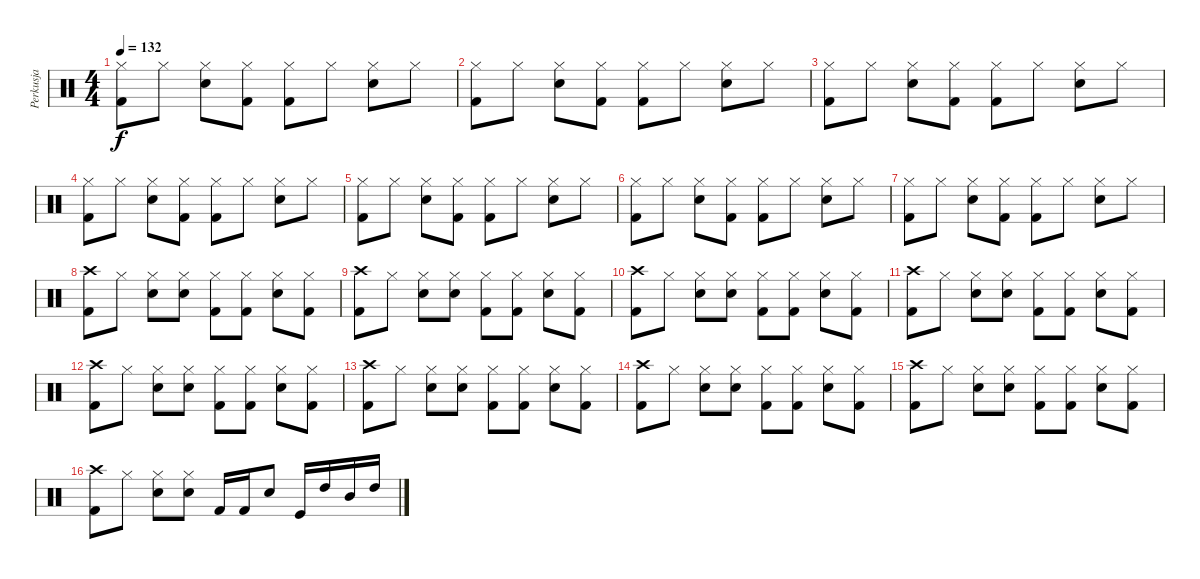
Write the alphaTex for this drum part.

\track ("Perkusja" "Perkusja") {instrument percussion}
\staff {score}
\articulation defaults
\ts (4 4)
\tempo 132
\clef neutral
\ks c
("Kick (hit) 2" "Hi-Hat (closed)").8{dy f} "Hi-Hat (closed)".8 ("Snare (hit) 2" "Hi-Hat (closed)").8 ("Kick (hit) 2" "Hi-Hat (closed)").8 ("Kick (hit) 2" "Hi-Hat (closed)").8 "Hi-Hat (closed)".8 ("Snare (hit) 2" "Hi-Hat (closed)").8 "Hi-Hat (closed)".8 |
("Kick (hit) 2" "Hi-Hat (closed)").8 "Hi-Hat (closed)".8 ("Snare (hit) 2" "Hi-Hat (closed)").8 ("Kick (hit) 2" "Hi-Hat (closed)").8 ("Kick (hit) 2" "Hi-Hat (closed)").8 "Hi-Hat (closed)".8 ("Snare (hit) 2" "Hi-Hat (closed)").8 "Hi-Hat (closed)".8 |
("Kick (hit) 2" "Hi-Hat (closed)").8 "Hi-Hat (closed)".8 ("Snare (hit) 2" "Hi-Hat (closed)").8 ("Kick (hit) 2" "Hi-Hat (closed)").8 ("Kick (hit) 2" "Hi-Hat (closed)").8 "Hi-Hat (closed)".8 ("Snare (hit) 2" "Hi-Hat (closed)").8 "Hi-Hat (closed)".8 |
("Kick (hit) 2" "Hi-Hat (closed)").8 "Hi-Hat (closed)".8 ("Snare (hit) 2" "Hi-Hat (closed)").8 ("Kick (hit) 2" "Hi-Hat (closed)").8 ("Kick (hit) 2" "Hi-Hat (closed)").8 "Hi-Hat (closed)".8 ("Snare (hit) 2" "Hi-Hat (closed)").8 "Hi-Hat (closed)".8 |
("Kick (hit) 2" "Hi-Hat (closed)").8 "Hi-Hat (closed)".8 ("Snare (hit) 2" "Hi-Hat (closed)").8 ("Kick (hit) 2" "Hi-Hat (closed)").8 ("Kick (hit) 2" "Hi-Hat (closed)").8 "Hi-Hat (closed)".8 ("Snare (hit) 2" "Hi-Hat (closed)").8 "Hi-Hat (closed)".8 |
("Kick (hit) 2" "Hi-Hat (closed)").8 "Hi-Hat (closed)".8 ("Snare (hit) 2" "Hi-Hat (closed)").8 ("Kick (hit) 2" "Hi-Hat (closed)").8 ("Kick (hit) 2" "Hi-Hat (closed)").8 "Hi-Hat (closed)".8 ("Snare (hit) 2" "Hi-Hat (closed)").8 "Hi-Hat (closed)".8 |
("Kick (hit) 2" "Hi-Hat (closed)").8 "Hi-Hat (closed)".8 ("Snare (hit) 2" "Hi-Hat (closed)").8 ("Kick (hit) 2" "Hi-Hat (closed)").8 ("Kick (hit) 2" "Hi-Hat (closed)").8 "Hi-Hat (closed)".8 ("Snare (hit) 2" "Hi-Hat (closed)").8 "Hi-Hat (closed)".8 |
("Kick (hit) 2" "Crash high (hit)").8 "Hi-Hat (closed)".8 ("Snare (hit) 2" "Hi-Hat (closed)").8 ("Snare (hit) 2" "Hi-Hat (closed)").8 ("Kick (hit) 2" "Hi-Hat (closed)").8 ("Kick (hit) 2" "Hi-Hat (closed)").8 ("Snare (hit) 2" "Hi-Hat (closed)").8 ("Kick (hit) 2" "Hi-Hat (closed)").8 |
("Kick (hit) 2" "Crash high (hit)").8 "Hi-Hat (closed)".8 ("Snare (hit) 2" "Hi-Hat (closed)").8 ("Snare (hit) 2" "Hi-Hat (closed)").8 ("Kick (hit) 2" "Hi-Hat (closed)").8 ("Kick (hit) 2" "Hi-Hat (closed)").8 ("Snare (hit) 2" "Hi-Hat (closed)").8 ("Kick (hit) 2" "Hi-Hat (closed)").8 |
("Kick (hit) 2" "Crash high (hit)").8 "Hi-Hat (closed)".8 ("Snare (hit) 2" "Hi-Hat (closed)").8 ("Snare (hit) 2" "Hi-Hat (closed)").8 ("Kick (hit) 2" "Hi-Hat (closed)").8 ("Kick (hit) 2" "Hi-Hat (closed)").8 ("Snare (hit) 2" "Hi-Hat (closed)").8 ("Kick (hit) 2" "Hi-Hat (closed)").8 |
("Kick (hit) 2" "Crash high (hit)").8 "Hi-Hat (closed)".8 ("Snare (hit) 2" "Hi-Hat (closed)").8 ("Snare (hit) 2" "Hi-Hat (closed)").8 ("Kick (hit) 2" "Hi-Hat (closed)").8 ("Kick (hit) 2" "Hi-Hat (closed)").8 ("Snare (hit) 2" "Hi-Hat (closed)").8 ("Kick (hit) 2" "Hi-Hat (closed)").8 |
("Kick (hit) 2" "Crash high (hit)").8 "Hi-Hat (closed)".8 ("Snare (hit) 2" "Hi-Hat (closed)").8 ("Snare (hit) 2" "Hi-Hat (closed)").8 ("Kick (hit) 2" "Hi-Hat (closed)").8 ("Kick (hit) 2" "Hi-Hat (closed)").8 ("Snare (hit) 2" "Hi-Hat (closed)").8 ("Kick (hit) 2" "Hi-Hat (closed)").8 |
("Kick (hit) 2" "Crash high (hit)").8 "Hi-Hat (closed)".8 ("Snare (hit) 2" "Hi-Hat (closed)").8 ("Snare (hit) 2" "Hi-Hat (closed)").8 ("Kick (hit) 2" "Hi-Hat (closed)").8 ("Kick (hit) 2" "Hi-Hat (closed)").8 ("Snare (hit) 2" "Hi-Hat (closed)").8 ("Kick (hit) 2" "Hi-Hat (closed)").8 |
("Kick (hit) 2" "Crash high (hit)").8 "Hi-Hat (closed)".8 ("Snare (hit) 2" "Hi-Hat (closed)").8 ("Snare (hit) 2" "Hi-Hat (closed)").8 ("Kick (hit) 2" "Hi-Hat (closed)").8 ("Kick (hit) 2" "Hi-Hat (closed)").8 ("Snare (hit) 2" "Hi-Hat (closed)").8 ("Kick (hit) 2" "Hi-Hat (closed)").8 |
("Kick (hit) 2" "Crash high (hit)").8 "Hi-Hat (closed)".8 ("Snare (hit) 2" "Hi-Hat (closed)").8 ("Snare (hit) 2" "Hi-Hat (closed)").8 ("Kick (hit) 2" "Hi-Hat (closed)").8 ("Kick (hit) 2" "Hi-Hat (closed)").8 ("Snare (hit) 2" "Hi-Hat (closed)").8 ("Kick (hit) 2" "Hi-Hat (closed)").8 |
("Kick (hit) 2" "Crash high (hit)").8 "Hi-Hat (closed)".8 ("Snare (hit) 2" "Hi-Hat (closed)").8 ("Snare (hit) 2" "Hi-Hat (closed)").8 "Kick (hit) 2".16 "Kick (hit) 2".16 "Snare (hit) 2".8 "Kick (hit)".16 "High Tom (hit)".16 "Mid Tom (hit)".16 "High Tom (hit)".16
